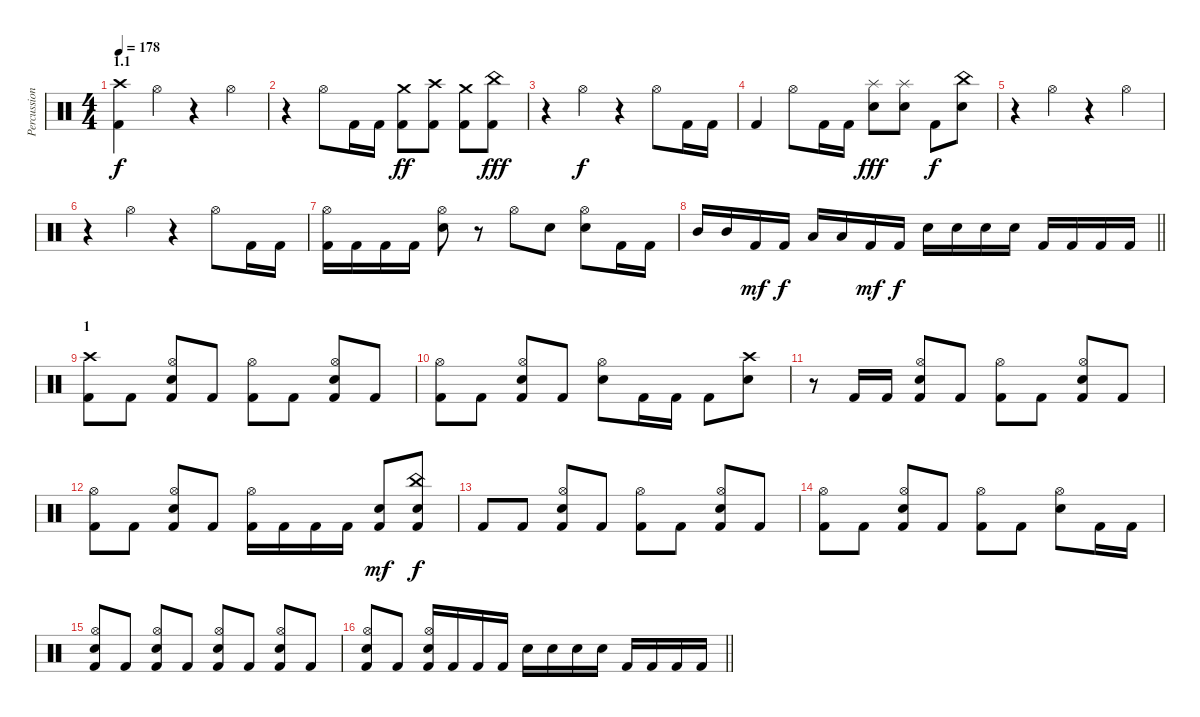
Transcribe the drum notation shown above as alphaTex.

\track ("Percussion" "Percussion") {instrument percussion}
\staff {score}
\articulation defaults
\ts (4 4)
\section ("" "1.1")
\tempo 178
\clef neutral
\ks c
("Crash high (hit)" "Kick (hit) 2").4{dy f} "Hi-Hat (open)".4 r.4 "Hi-Hat (open)".4 |
r.4 "Hi-Hat (open)".8 "Kick (hit) 2".16 "Kick (hit) 2".16 ("Crash medium (hit)" "Kick (hit) 2").8{dy ff} ("Crash high (hit)" "Kick (hit) 2").8 ("Crash medium (hit)" "Kick (hit) 2").8 ("China (hit)" "Kick (hit) 2").8{dy fff} |
r.4 "Hi-Hat (open)".4{dy f} r.4 "Hi-Hat (open)".8 "Kick (hit) 2".16 "Kick (hit) 2".16 |
"Kick (hit) 2".4 "Hi-Hat (open)".8 "Kick (hit) 2".16 "Kick (hit) 2".16 ("Splash (hit)" "Electric Snare (hit)").8{dy fff} ("Splash (hit)" "Electric Snare (hit)").8 "Kick (hit) 2".8{dy f} ("China (hit)" "Electric Snare (hit)").8 |
r.4 "Hi-Hat (open)".4 r.4 "Hi-Hat (open)".4 |
r.4 "Hi-Hat (open)".4 r.4 "Hi-Hat (open)".8 "Kick (hit) 2".16 "Kick (hit) 2".16 |
("Hi-Hat (open)" "Kick (hit) 2").16 "Kick (hit) 2".16 "Kick (hit) 2".16 "Kick (hit) 2".16 ("Hi-Hat (open)" "Electric Snare (hit)").8 r.8 "Hi-Hat (open)".8 "Electric Snare (hit)".8 ("Hi-Hat (open)" "Electric Snare (hit)").8 "Kick (hit) 2".16 "Kick (hit) 2".16 |
\barLineRight lightlight "Mid Tom (hit)".16 "Mid Tom (hit)".16 "Kick (hit) 2".16{dy mf} "Kick (hit) 2".16{dy f} "Low Tom (hit)".16 "Low Tom (hit)".16 "Kick (hit) 2".16{dy mf} "Kick (hit) 2".16{dy f} "Electric Snare (hit)".16 "Electric Snare (hit)".16 "Electric Snare (hit)".16 "Electric Snare (hit)".16 "Kick (hit) 2".16 "Kick (hit) 2".16 "Kick (hit) 2".16 "Kick (hit) 2".16
|
\section ("" "1")
("Crash high (hit)" "Kick (hit) 2").8 "Kick (hit) 2".8 ("Hi-Hat (open)" "Electric Snare (hit)" "Kick (hit) 2").8 "Kick (hit) 2".8 ("Hi-Hat (open)" "Kick (hit) 2").8 "Kick (hit) 2".8 ("Hi-Hat (open)" "Electric Snare (hit)" "Kick (hit) 2").8 "Kick (hit) 2".8 |
("Hi-Hat (open)" "Kick (hit) 2").8 "Kick (hit) 2".8 ("Hi-Hat (open)" "Electric Snare (hit)" "Kick (hit) 2").8 "Kick (hit) 2".8 ("Hi-Hat (open)" "Electric Snare (hit)").8 "Kick (hit) 2".16 "Kick (hit) 2".16 "Kick (hit) 2".8 ("Crash high (hit)" "Electric Snare (hit)").8 |
r.8 "Kick (hit) 2".16 "Kick (hit) 2".16 ("Hi-Hat (open)" "Electric Snare (hit)" "Kick (hit) 2").8 "Kick (hit) 2".8 ("Hi-Hat (open)" "Kick (hit) 2").8 "Kick (hit) 2".8 ("Hi-Hat (open)" "Electric Snare (hit)" "Kick (hit) 2").8 "Kick (hit) 2".8 |
("Hi-Hat (open)" "Kick (hit) 2").8 "Kick (hit) 2".8 ("Hi-Hat (open)" "Electric Snare (hit)" "Kick (hit) 2").8 "Kick (hit) 2".8 ("Hi-Hat (open)" "Kick (hit) 2").16 "Kick (hit) 2".16 "Kick (hit) 2".16 "Kick (hit) 2".16 ("Electric Snare (hit)" "Kick (hit) 2").8{dy mf} ("China (hit)" "Electric Snare (hit)" "Kick (hit) 2").8{dy f} |
"Kick (hit) 2".8 "Kick (hit) 2".8 ("Hi-Hat (open)" "Electric Snare (hit)" "Kick (hit) 2").8 "Kick (hit) 2".8 ("Hi-Hat (open)" "Kick (hit) 2").8 "Kick (hit) 2".8 ("Hi-Hat (open)" "Electric Snare (hit)" "Kick (hit) 2").8 "Kick (hit) 2".8 |
("Hi-Hat (open)" "Kick (hit) 2").8 "Kick (hit) 2".8 ("Hi-Hat (open)" "Electric Snare (hit)" "Kick (hit) 2").8 "Kick (hit) 2".8 ("Hi-Hat (open)" "Kick (hit) 2").8 "Kick (hit) 2".8 ("Hi-Hat (open)" "Electric Snare (hit)").8 "Kick (hit) 2".16 "Kick (hit) 2".16 |
("Hi-Hat (open)" "Electric Snare (hit)" "Kick (hit) 2").8 "Kick (hit) 2".8 ("Hi-Hat (open)" "Electric Snare (hit)" "Kick (hit) 2").8 "Kick (hit) 2".8 ("Hi-Hat (open)" "Electric Snare (hit)" "Kick (hit) 2").8 "Kick (hit) 2".8 ("Hi-Hat (open)" "Electric Snare (hit)" "Kick (hit) 2").8 "Kick (hit) 2".8 |
\barLineRight lightlight
("Hi-Hat (open)" "Electric Snare (hit)" "Kick (hit) 2").8 "Kick (hit) 2".8 ("Hi-Hat (open)" "Electric Snare (hit)" "Kick (hit) 2").16 "Kick (hit) 2".16 "Kick (hit) 2".16 "Kick (hit) 2".16 "Electric Snare (hit)".16 "Electric Snare (hit)".16 "Electric Snare (hit)".16 "Electric Snare (hit)".16 "Kick (hit) 2".16 "Kick (hit) 2".16 "Kick (hit) 2".16 "Kick (hit) 2".16
